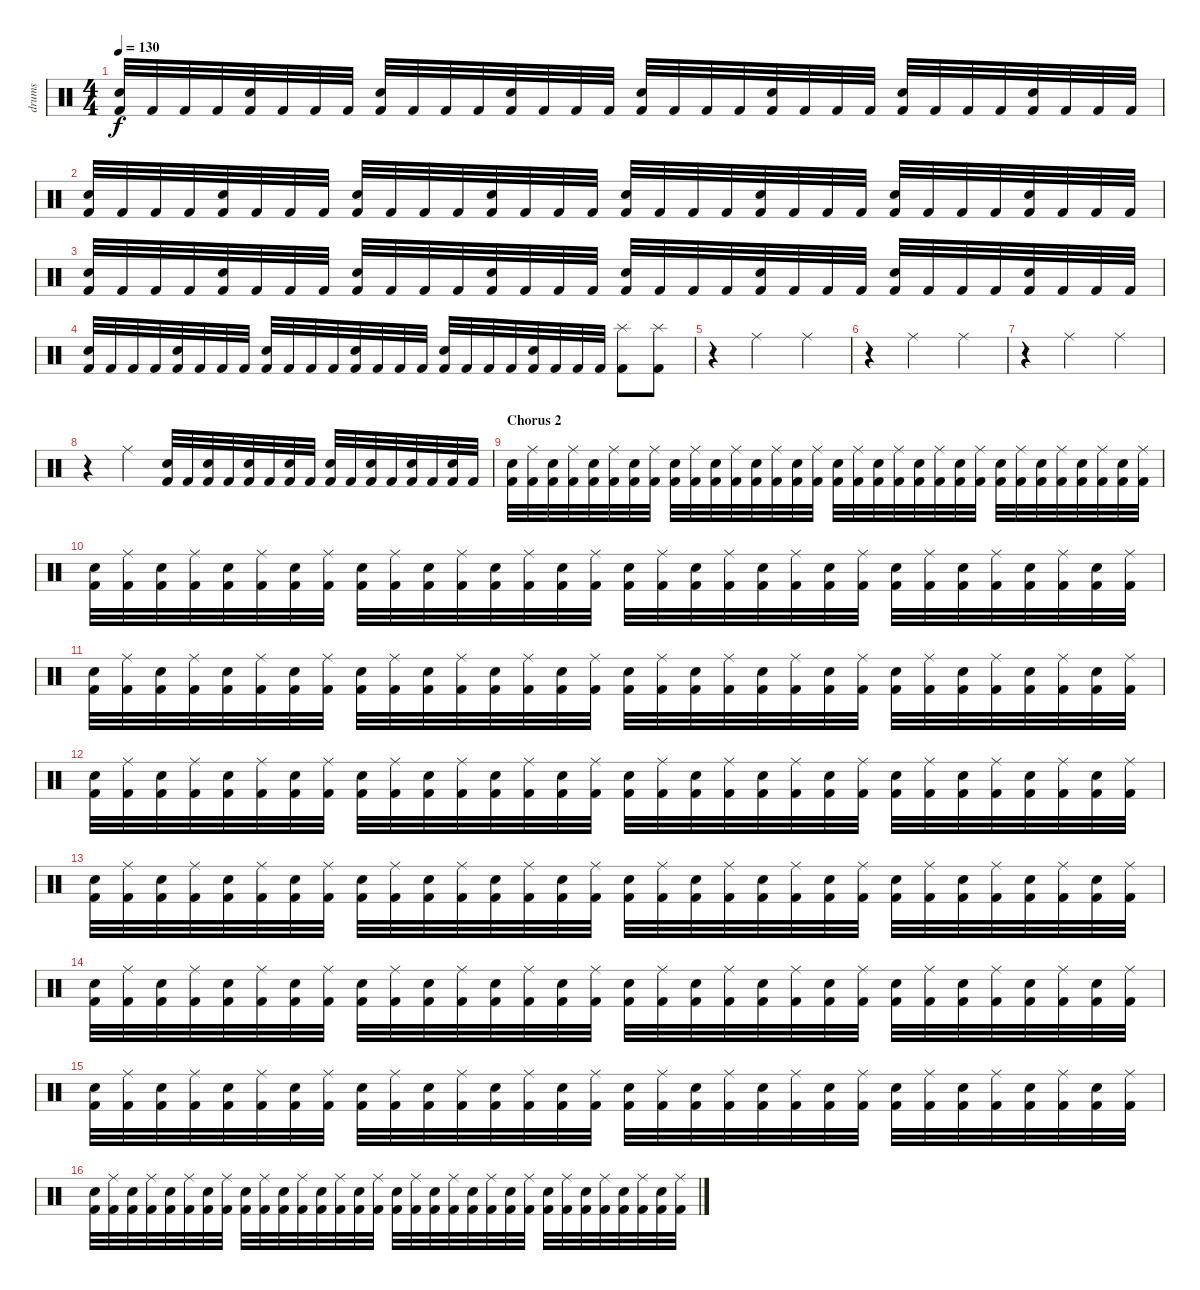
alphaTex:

\track ("drums" "drums") {instrument percussion}
\staff {score}
\articulation defaults
\ts (4 4)
\tempo 130
\clef neutral
\ks c
("Electric Snare (hit)" "Kick (hit) 2").32{dy f} "Kick (hit) 2".32 "Kick (hit) 2".32 "Kick (hit) 2".32 ("Electric Snare (hit)" "Kick (hit) 2").32 "Kick (hit) 2".32 "Kick (hit) 2".32 "Kick (hit) 2".32 ("Electric Snare (hit)" "Kick (hit) 2").32 "Kick (hit) 2".32 "Kick (hit) 2".32 "Kick (hit) 2".32 ("Electric Snare (hit)" "Kick (hit) 2").32 "Kick (hit) 2".32 "Kick (hit) 2".32 "Kick (hit) 2".32 ("Electric Snare (hit)" "Kick (hit) 2").32 "Kick (hit) 2".32 "Kick (hit) 2".32 "Kick (hit) 2".32 ("Electric Snare (hit)" "Kick (hit) 2").32 "Kick (hit) 2".32 "Kick (hit) 2".32 "Kick (hit) 2".32 ("Electric Snare (hit)" "Kick (hit) 2").32 "Kick (hit) 2".32 "Kick (hit) 2".32 "Kick (hit) 2".32 ("Electric Snare (hit)" "Kick (hit) 2").32 "Kick (hit) 2".32 "Kick (hit) 2".32 "Kick (hit) 2".32 |
("Electric Snare (hit)" "Kick (hit) 2").32 "Kick (hit) 2".32 "Kick (hit) 2".32 "Kick (hit) 2".32 ("Electric Snare (hit)" "Kick (hit) 2").32 "Kick (hit) 2".32 "Kick (hit) 2".32 "Kick (hit) 2".32 ("Electric Snare (hit)" "Kick (hit) 2").32 "Kick (hit) 2".32 "Kick (hit) 2".32 "Kick (hit) 2".32 ("Electric Snare (hit)" "Kick (hit) 2").32 "Kick (hit) 2".32 "Kick (hit) 2".32 "Kick (hit) 2".32 ("Electric Snare (hit)" "Kick (hit) 2").32 "Kick (hit) 2".32 "Kick (hit) 2".32 "Kick (hit) 2".32 ("Electric Snare (hit)" "Kick (hit) 2").32 "Kick (hit) 2".32 "Kick (hit) 2".32 "Kick (hit) 2".32 ("Electric Snare (hit)" "Kick (hit) 2").32 "Kick (hit) 2".32 "Kick (hit) 2".32 "Kick (hit) 2".32 ("Electric Snare (hit)" "Kick (hit) 2").32 "Kick (hit) 2".32 "Kick (hit) 2".32 "Kick (hit) 2".32 |
("Electric Snare (hit)" "Kick (hit) 2").32 "Kick (hit) 2".32 "Kick (hit) 2".32 "Kick (hit) 2".32 ("Electric Snare (hit)" "Kick (hit) 2").32 "Kick (hit) 2".32 "Kick (hit) 2".32 "Kick (hit) 2".32 ("Electric Snare (hit)" "Kick (hit) 2").32 "Kick (hit) 2".32 "Kick (hit) 2".32 "Kick (hit) 2".32 ("Electric Snare (hit)" "Kick (hit) 2").32 "Kick (hit) 2".32 "Kick (hit) 2".32 "Kick (hit) 2".32 ("Electric Snare (hit)" "Kick (hit) 2").32 "Kick (hit) 2".32 "Kick (hit) 2".32 "Kick (hit) 2".32 ("Electric Snare (hit)" "Kick (hit) 2").32 "Kick (hit) 2".32 "Kick (hit) 2".32 "Kick (hit) 2".32 ("Electric Snare (hit)" "Kick (hit) 2").32 "Kick (hit) 2".32 "Kick (hit) 2".32 "Kick (hit) 2".32 ("Electric Snare (hit)" "Kick (hit) 2").32 "Kick (hit) 2".32 "Kick (hit) 2".32 "Kick (hit) 2".32 |
("Electric Snare (hit)" "Kick (hit) 2").32 "Kick (hit) 2".32 "Kick (hit) 2".32 "Kick (hit) 2".32 ("Electric Snare (hit)" "Kick (hit) 2").32 "Kick (hit) 2".32 "Kick (hit) 2".32 "Kick (hit) 2".32 ("Electric Snare (hit)" "Kick (hit) 2").32 "Kick (hit) 2".32 "Kick (hit) 2".32 "Kick (hit) 2".32 ("Electric Snare (hit)" "Kick (hit) 2").32 "Kick (hit) 2".32 "Kick (hit) 2".32 "Kick (hit) 2".32 ("Electric Snare (hit)" "Kick (hit) 2").32 "Kick (hit) 2".32 "Kick (hit) 2".32 "Kick (hit) 2".32 ("Electric Snare (hit)" "Kick (hit) 2").32 "Kick (hit) 2".32 "Kick (hit) 2".32 "Kick (hit) 2".32 ("Splash (hit)" "Kick (hit) 2").8 ("Splash (hit)" "Kick (hit) 2").8 |
r.4 "Ride (middle)".2 "Ride (middle)".4 |
r.4 "Ride (middle)".2 "Ride (middle)".4 |
r.4 "Ride (middle)".2 "Ride (middle)".4 |
r.4 "Ride (middle)".4 ("Electric Snare (hit)" "Kick (hit) 2").32 "Kick (hit) 2".32 ("Electric Snare (hit)" "Kick (hit) 2").32 "Kick (hit) 2".32 ("Electric Snare (hit)" "Kick (hit) 2").32 "Kick (hit) 2".32 ("Electric Snare (hit)" "Kick (hit) 2").32 "Kick (hit) 2".32 ("Electric Snare (hit)" "Kick (hit) 2").32 "Kick (hit) 2".32 ("Electric Snare (hit)" "Kick (hit) 2").32 "Kick (hit) 2".32 ("Electric Snare (hit)" "Kick (hit) 2").32 "Kick (hit) 2".32 ("Electric Snare (hit)" "Kick (hit) 2").32 "Kick (hit) 2".32 |
\section ("" "Chorus 2")
("Electric Snare (hit)" "Kick (hit) 2").32 ("Ride (middle)" "Kick (hit) 2").32 ("Electric Snare (hit)" "Kick (hit) 2").32 ("Ride (middle)" "Kick (hit) 2").32 ("Electric Snare (hit)" "Kick (hit) 2").32 ("Ride (middle)" "Kick (hit) 2").32 ("Electric Snare (hit)" "Kick (hit) 2").32 ("Ride (middle)" "Kick (hit) 2").32 ("Electric Snare (hit)" "Kick (hit) 2").32 ("Ride (middle)" "Kick (hit) 2").32 ("Electric Snare (hit)" "Kick (hit) 2").32 ("Ride (middle)" "Kick (hit) 2").32 ("Electric Snare (hit)" "Kick (hit) 2").32 ("Ride (middle)" "Kick (hit) 2").32 ("Electric Snare (hit)" "Kick (hit) 2").32 ("Ride (middle)" "Kick (hit) 2").32 ("Electric Snare (hit)" "Kick (hit) 2").32 ("Ride (middle)" "Kick (hit) 2").32 ("Electric Snare (hit)" "Kick (hit) 2").32 ("Ride (middle)" "Kick (hit) 2").32 ("Electric Snare (hit)" "Kick (hit) 2").32 ("Ride (middle)" "Kick (hit) 2").32 ("Electric Snare (hit)" "Kick (hit) 2").32 ("Ride (middle)" "Kick (hit) 2").32 ("Electric Snare (hit)" "Kick (hit) 2").32 ("Ride (middle)" "Kick (hit) 2").32 ("Electric Snare (hit)" "Kick (hit) 2").32 ("Ride (middle)" "Kick (hit) 2").32 ("Electric Snare (hit)" "Kick (hit) 2").32 ("Ride (middle)" "Kick (hit) 2").32 ("Electric Snare (hit)" "Kick (hit) 2").32 ("Ride (middle)" "Kick (hit) 2").32 |
("Electric Snare (hit)" "Kick (hit) 2").32 ("Ride (middle)" "Kick (hit) 2").32 ("Electric Snare (hit)" "Kick (hit) 2").32 ("Ride (middle)" "Kick (hit) 2").32 ("Electric Snare (hit)" "Kick (hit) 2").32 ("Ride (middle)" "Kick (hit) 2").32 ("Electric Snare (hit)" "Kick (hit) 2").32 ("Ride (middle)" "Kick (hit) 2").32 ("Electric Snare (hit)" "Kick (hit) 2").32 ("Ride (middle)" "Kick (hit) 2").32 ("Electric Snare (hit)" "Kick (hit) 2").32 ("Ride (middle)" "Kick (hit) 2").32 ("Electric Snare (hit)" "Kick (hit) 2").32 ("Ride (middle)" "Kick (hit) 2").32 ("Electric Snare (hit)" "Kick (hit) 2").32 ("Ride (middle)" "Kick (hit) 2").32 ("Electric Snare (hit)" "Kick (hit) 2").32 ("Ride (middle)" "Kick (hit) 2").32 ("Electric Snare (hit)" "Kick (hit) 2").32 ("Ride (middle)" "Kick (hit) 2").32 ("Electric Snare (hit)" "Kick (hit) 2").32 ("Ride (middle)" "Kick (hit) 2").32 ("Electric Snare (hit)" "Kick (hit) 2").32 ("Ride (middle)" "Kick (hit) 2").32 ("Electric Snare (hit)" "Kick (hit) 2").32 ("Ride (middle)" "Kick (hit) 2").32 ("Electric Snare (hit)" "Kick (hit) 2").32 ("Ride (middle)" "Kick (hit) 2").32 ("Electric Snare (hit)" "Kick (hit) 2").32 ("Ride (middle)" "Kick (hit) 2").32 ("Electric Snare (hit)" "Kick (hit) 2").32 ("Ride (middle)" "Kick (hit) 2").32 |
("Electric Snare (hit)" "Kick (hit) 2").32 ("Ride (middle)" "Kick (hit) 2").32 ("Electric Snare (hit)" "Kick (hit) 2").32 ("Ride (middle)" "Kick (hit) 2").32 ("Electric Snare (hit)" "Kick (hit) 2").32 ("Ride (middle)" "Kick (hit) 2").32 ("Electric Snare (hit)" "Kick (hit) 2").32 ("Ride (middle)" "Kick (hit) 2").32 ("Electric Snare (hit)" "Kick (hit) 2").32 ("Ride (middle)" "Kick (hit) 2").32 ("Electric Snare (hit)" "Kick (hit) 2").32 ("Ride (middle)" "Kick (hit) 2").32 ("Electric Snare (hit)" "Kick (hit) 2").32 ("Ride (middle)" "Kick (hit) 2").32 ("Electric Snare (hit)" "Kick (hit) 2").32 ("Ride (middle)" "Kick (hit) 2").32 ("Electric Snare (hit)" "Kick (hit) 2").32 ("Ride (middle)" "Kick (hit) 2").32 ("Electric Snare (hit)" "Kick (hit) 2").32 ("Ride (middle)" "Kick (hit) 2").32 ("Electric Snare (hit)" "Kick (hit) 2").32 ("Ride (middle)" "Kick (hit) 2").32 ("Electric Snare (hit)" "Kick (hit) 2").32 ("Ride (middle)" "Kick (hit) 2").32 ("Electric Snare (hit)" "Kick (hit) 2").32 ("Ride (middle)" "Kick (hit) 2").32 ("Electric Snare (hit)" "Kick (hit) 2").32 ("Ride (middle)" "Kick (hit) 2").32 ("Electric Snare (hit)" "Kick (hit) 2").32 ("Ride (middle)" "Kick (hit) 2").32 ("Electric Snare (hit)" "Kick (hit) 2").32 ("Ride (middle)" "Kick (hit) 2").32 |
("Electric Snare (hit)" "Kick (hit) 2").32 ("Ride (middle)" "Kick (hit) 2").32 ("Electric Snare (hit)" "Kick (hit) 2").32 ("Ride (middle)" "Kick (hit) 2").32 ("Electric Snare (hit)" "Kick (hit) 2").32 ("Ride (middle)" "Kick (hit) 2").32 ("Electric Snare (hit)" "Kick (hit) 2").32 ("Ride (middle)" "Kick (hit) 2").32 ("Electric Snare (hit)" "Kick (hit) 2").32 ("Ride (middle)" "Kick (hit) 2").32 ("Electric Snare (hit)" "Kick (hit) 2").32 ("Ride (middle)" "Kick (hit) 2").32 ("Electric Snare (hit)" "Kick (hit) 2").32 ("Ride (middle)" "Kick (hit) 2").32 ("Electric Snare (hit)" "Kick (hit) 2").32 ("Ride (middle)" "Kick (hit) 2").32 ("Electric Snare (hit)" "Kick (hit) 2").32 ("Ride (middle)" "Kick (hit) 2").32 ("Electric Snare (hit)" "Kick (hit) 2").32 ("Ride (middle)" "Kick (hit) 2").32 ("Electric Snare (hit)" "Kick (hit) 2").32 ("Ride (middle)" "Kick (hit) 2").32 ("Electric Snare (hit)" "Kick (hit) 2").32 ("Ride (middle)" "Kick (hit) 2").32 ("Electric Snare (hit)" "Kick (hit) 2").32 ("Ride (middle)" "Kick (hit) 2").32 ("Electric Snare (hit)" "Kick (hit) 2").32 ("Ride (middle)" "Kick (hit) 2").32 ("Electric Snare (hit)" "Kick (hit) 2").32 ("Ride (middle)" "Kick (hit) 2").32 ("Electric Snare (hit)" "Kick (hit) 2").32 ("Ride (middle)" "Kick (hit) 2").32 |
("Electric Snare (hit)" "Kick (hit) 2").32 ("Ride (middle)" "Kick (hit) 2").32 ("Electric Snare (hit)" "Kick (hit) 2").32 ("Ride (middle)" "Kick (hit) 2").32 ("Electric Snare (hit)" "Kick (hit) 2").32 ("Ride (middle)" "Kick (hit) 2").32 ("Electric Snare (hit)" "Kick (hit) 2").32 ("Ride (middle)" "Kick (hit) 2").32 ("Electric Snare (hit)" "Kick (hit) 2").32 ("Ride (middle)" "Kick (hit) 2").32 ("Electric Snare (hit)" "Kick (hit) 2").32 ("Ride (middle)" "Kick (hit) 2").32 ("Electric Snare (hit)" "Kick (hit) 2").32 ("Ride (middle)" "Kick (hit) 2").32 ("Electric Snare (hit)" "Kick (hit) 2").32 ("Ride (middle)" "Kick (hit) 2").32 ("Electric Snare (hit)" "Kick (hit) 2").32 ("Ride (middle)" "Kick (hit) 2").32 ("Electric Snare (hit)" "Kick (hit) 2").32 ("Ride (middle)" "Kick (hit) 2").32 ("Electric Snare (hit)" "Kick (hit) 2").32 ("Ride (middle)" "Kick (hit) 2").32 ("Electric Snare (hit)" "Kick (hit) 2").32 ("Ride (middle)" "Kick (hit) 2").32 ("Electric Snare (hit)" "Kick (hit) 2").32 ("Ride (middle)" "Kick (hit) 2").32 ("Electric Snare (hit)" "Kick (hit) 2").32 ("Ride (middle)" "Kick (hit) 2").32 ("Electric Snare (hit)" "Kick (hit) 2").32 ("Ride (middle)" "Kick (hit) 2").32 ("Electric Snare (hit)" "Kick (hit) 2").32 ("Ride (middle)" "Kick (hit) 2").32 |
("Electric Snare (hit)" "Kick (hit) 2").32 ("Ride (middle)" "Kick (hit) 2").32 ("Electric Snare (hit)" "Kick (hit) 2").32 ("Ride (middle)" "Kick (hit) 2").32 ("Electric Snare (hit)" "Kick (hit) 2").32 ("Ride (middle)" "Kick (hit) 2").32 ("Electric Snare (hit)" "Kick (hit) 2").32 ("Ride (middle)" "Kick (hit) 2").32 ("Electric Snare (hit)" "Kick (hit) 2").32 ("Ride (middle)" "Kick (hit) 2").32 ("Electric Snare (hit)" "Kick (hit) 2").32 ("Ride (middle)" "Kick (hit) 2").32 ("Electric Snare (hit)" "Kick (hit) 2").32 ("Ride (middle)" "Kick (hit) 2").32 ("Electric Snare (hit)" "Kick (hit) 2").32 ("Ride (middle)" "Kick (hit) 2").32 ("Electric Snare (hit)" "Kick (hit) 2").32 ("Ride (middle)" "Kick (hit) 2").32 ("Electric Snare (hit)" "Kick (hit) 2").32 ("Ride (middle)" "Kick (hit) 2").32 ("Electric Snare (hit)" "Kick (hit) 2").32 ("Ride (middle)" "Kick (hit) 2").32 ("Electric Snare (hit)" "Kick (hit) 2").32 ("Ride (middle)" "Kick (hit) 2").32 ("Electric Snare (hit)" "Kick (hit) 2").32 ("Ride (middle)" "Kick (hit) 2").32 ("Electric Snare (hit)" "Kick (hit) 2").32 ("Ride (middle)" "Kick (hit) 2").32 ("Electric Snare (hit)" "Kick (hit) 2").32 ("Ride (middle)" "Kick (hit) 2").32 ("Electric Snare (hit)" "Kick (hit) 2").32 ("Ride (middle)" "Kick (hit) 2").32 |
("Electric Snare (hit)" "Kick (hit) 2").32 ("Ride (middle)" "Kick (hit) 2").32 ("Electric Snare (hit)" "Kick (hit) 2").32 ("Ride (middle)" "Kick (hit) 2").32 ("Electric Snare (hit)" "Kick (hit) 2").32 ("Ride (middle)" "Kick (hit) 2").32 ("Electric Snare (hit)" "Kick (hit) 2").32 ("Ride (middle)" "Kick (hit) 2").32 ("Electric Snare (hit)" "Kick (hit) 2").32 ("Ride (middle)" "Kick (hit) 2").32 ("Electric Snare (hit)" "Kick (hit) 2").32 ("Ride (middle)" "Kick (hit) 2").32 ("Electric Snare (hit)" "Kick (hit) 2").32 ("Ride (middle)" "Kick (hit) 2").32 ("Electric Snare (hit)" "Kick (hit) 2").32 ("Ride (middle)" "Kick (hit) 2").32 ("Electric Snare (hit)" "Kick (hit) 2").32 ("Ride (middle)" "Kick (hit) 2").32 ("Electric Snare (hit)" "Kick (hit) 2").32 ("Ride (middle)" "Kick (hit) 2").32 ("Electric Snare (hit)" "Kick (hit) 2").32 ("Ride (middle)" "Kick (hit) 2").32 ("Electric Snare (hit)" "Kick (hit) 2").32 ("Ride (middle)" "Kick (hit) 2").32 ("Electric Snare (hit)" "Kick (hit) 2").32 ("Ride (middle)" "Kick (hit) 2").32 ("Electric Snare (hit)" "Kick (hit) 2").32 ("Ride (middle)" "Kick (hit) 2").32 ("Electric Snare (hit)" "Kick (hit) 2").32 ("Ride (middle)" "Kick (hit) 2").32 ("Electric Snare (hit)" "Kick (hit) 2").32 ("Ride (middle)" "Kick (hit) 2").32 |
("Electric Snare (hit)" "Kick (hit) 2").32 ("Ride (middle)" "Kick (hit) 2").32 ("Electric Snare (hit)" "Kick (hit) 2").32 ("Ride (middle)" "Kick (hit) 2").32 ("Electric Snare (hit)" "Kick (hit) 2").32 ("Ride (middle)" "Kick (hit) 2").32 ("Electric Snare (hit)" "Kick (hit) 2").32 ("Ride (middle)" "Kick (hit) 2").32 ("Electric Snare (hit)" "Kick (hit) 2").32 ("Ride (middle)" "Kick (hit) 2").32 ("Electric Snare (hit)" "Kick (hit) 2").32 ("Ride (middle)" "Kick (hit) 2").32 ("Electric Snare (hit)" "Kick (hit) 2").32 ("Ride (middle)" "Kick (hit) 2").32 ("Electric Snare (hit)" "Kick (hit) 2").32 ("Ride (middle)" "Kick (hit) 2").32 ("Electric Snare (hit)" "Kick (hit) 2").32 ("Ride (middle)" "Kick (hit) 2").32 ("Electric Snare (hit)" "Kick (hit) 2").32 ("Ride (middle)" "Kick (hit) 2").32 ("Electric Snare (hit)" "Kick (hit) 2").32 ("Ride (middle)" "Kick (hit) 2").32 ("Electric Snare (hit)" "Kick (hit) 2").32 ("Ride (middle)" "Kick (hit) 2").32 ("Electric Snare (hit)" "Kick (hit) 2").32 ("Ride (middle)" "Kick (hit) 2").32 ("Electric Snare (hit)" "Kick (hit) 2").32 ("Ride (middle)" "Kick (hit) 2").32 ("Electric Snare (hit)" "Kick (hit) 2").32 ("Ride (middle)" "Kick (hit) 2").32 ("Electric Snare (hit)" "Kick (hit) 2").32 ("Ride (middle)" "Kick (hit) 2").32
